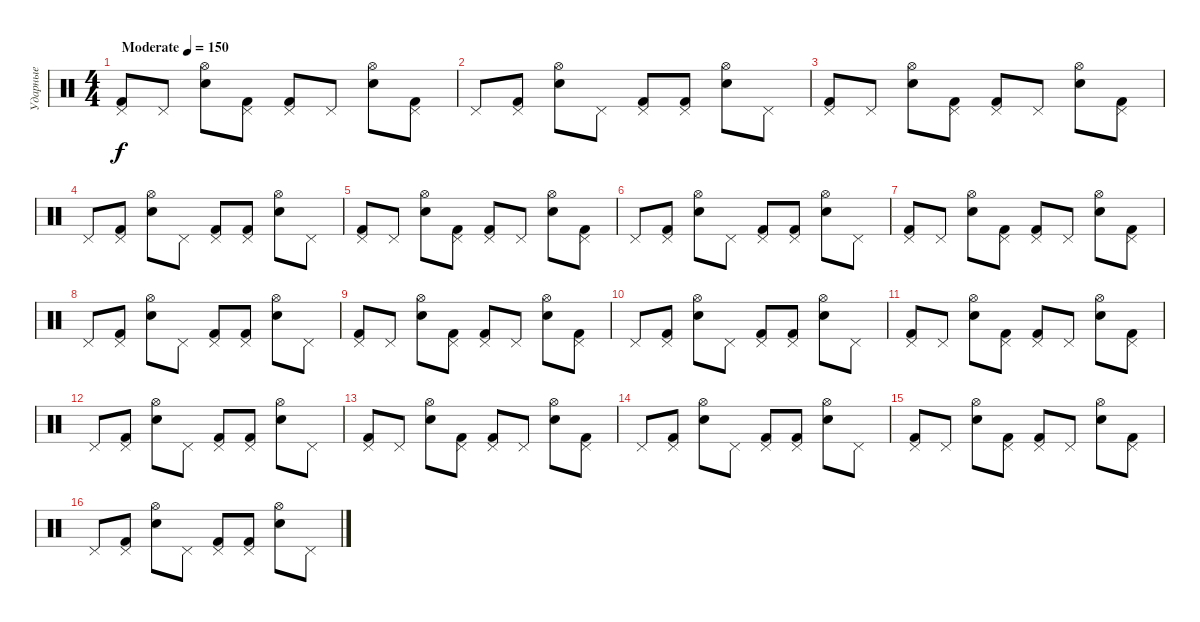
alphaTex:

\track ("Ударные" "Ударные") {instrument percussion}
\staff {score}
\articulation defaults
\ts (4 4)
\tempo (150 "Moderate")
\clef neutral
\ks c
("Pedal Hi-Hat (hit)" "Kick (hit) 2").8{dy f} "Pedal Hi-Hat (hit)".8 ("Hi-Hat (open)" "Electric Snare (hit)").8 ("Pedal Hi-Hat (hit)" "Kick (hit) 2").8 ("Pedal Hi-Hat (hit)" "Kick (hit) 2").8 "Pedal Hi-Hat (hit)".8 ("Hi-Hat (open)" "Electric Snare (hit)").8 ("Pedal Hi-Hat (hit)" "Kick (hit) 2").8 |
"Pedal Hi-Hat (hit)".8 ("Pedal Hi-Hat (hit)" "Kick (hit) 2").8 ("Hi-Hat (open)" "Electric Snare (hit)").8 "Pedal Hi-Hat (hit)".8 ("Pedal Hi-Hat (hit)" "Kick (hit) 2").8 ("Pedal Hi-Hat (hit)" "Kick (hit) 2").8 ("Hi-Hat (open)" "Electric Snare (hit)").8 "Pedal Hi-Hat (hit)".8 |
("Pedal Hi-Hat (hit)" "Kick (hit) 2").8 "Pedal Hi-Hat (hit)".8 ("Hi-Hat (open)" "Electric Snare (hit)").8 ("Pedal Hi-Hat (hit)" "Kick (hit) 2").8 ("Pedal Hi-Hat (hit)" "Kick (hit) 2").8 "Pedal Hi-Hat (hit)".8 ("Hi-Hat (open)" "Electric Snare (hit)").8 ("Pedal Hi-Hat (hit)" "Kick (hit) 2").8 |
"Pedal Hi-Hat (hit)".8 ("Pedal Hi-Hat (hit)" "Kick (hit) 2").8 ("Hi-Hat (open)" "Electric Snare (hit)").8 "Pedal Hi-Hat (hit)".8 ("Pedal Hi-Hat (hit)" "Kick (hit) 2").8 ("Pedal Hi-Hat (hit)" "Kick (hit) 2").8 ("Hi-Hat (open)" "Electric Snare (hit)").8 "Pedal Hi-Hat (hit)".8 |
("Pedal Hi-Hat (hit)" "Kick (hit) 2").8 "Pedal Hi-Hat (hit)".8 ("Hi-Hat (open)" "Electric Snare (hit)").8 ("Pedal Hi-Hat (hit)" "Kick (hit) 2").8 ("Pedal Hi-Hat (hit)" "Kick (hit) 2").8 "Pedal Hi-Hat (hit)".8 ("Hi-Hat (open)" "Electric Snare (hit)").8 ("Pedal Hi-Hat (hit)" "Kick (hit) 2").8 |
"Pedal Hi-Hat (hit)".8 ("Pedal Hi-Hat (hit)" "Kick (hit) 2").8 ("Hi-Hat (open)" "Electric Snare (hit)").8 "Pedal Hi-Hat (hit)".8 ("Pedal Hi-Hat (hit)" "Kick (hit) 2").8 ("Pedal Hi-Hat (hit)" "Kick (hit) 2").8 ("Hi-Hat (open)" "Electric Snare (hit)").8 "Pedal Hi-Hat (hit)".8 |
("Pedal Hi-Hat (hit)" "Kick (hit) 2").8 "Pedal Hi-Hat (hit)".8 ("Hi-Hat (open)" "Electric Snare (hit)").8 ("Pedal Hi-Hat (hit)" "Kick (hit) 2").8 ("Pedal Hi-Hat (hit)" "Kick (hit) 2").8 "Pedal Hi-Hat (hit)".8 ("Hi-Hat (open)" "Electric Snare (hit)").8 ("Pedal Hi-Hat (hit)" "Kick (hit) 2").8 |
"Pedal Hi-Hat (hit)".8 ("Pedal Hi-Hat (hit)" "Kick (hit) 2").8 ("Hi-Hat (open)" "Electric Snare (hit)").8 "Pedal Hi-Hat (hit)".8 ("Pedal Hi-Hat (hit)" "Kick (hit) 2").8 ("Pedal Hi-Hat (hit)" "Kick (hit) 2").8 ("Hi-Hat (open)" "Electric Snare (hit)").8 "Pedal Hi-Hat (hit)".8 |
("Pedal Hi-Hat (hit)" "Kick (hit) 2").8 "Pedal Hi-Hat (hit)".8 ("Hi-Hat (open)" "Electric Snare (hit)").8 ("Pedal Hi-Hat (hit)" "Kick (hit) 2").8 ("Pedal Hi-Hat (hit)" "Kick (hit) 2").8 "Pedal Hi-Hat (hit)".8 ("Hi-Hat (open)" "Electric Snare (hit)").8 ("Pedal Hi-Hat (hit)" "Kick (hit) 2").8 |
"Pedal Hi-Hat (hit)".8 ("Pedal Hi-Hat (hit)" "Kick (hit) 2").8 ("Hi-Hat (open)" "Electric Snare (hit)").8 "Pedal Hi-Hat (hit)".8 ("Pedal Hi-Hat (hit)" "Kick (hit) 2").8 ("Pedal Hi-Hat (hit)" "Kick (hit) 2").8 ("Hi-Hat (open)" "Electric Snare (hit)").8 "Pedal Hi-Hat (hit)".8 |
("Pedal Hi-Hat (hit)" "Kick (hit) 2").8 "Pedal Hi-Hat (hit)".8 ("Hi-Hat (open)" "Electric Snare (hit)").8 ("Pedal Hi-Hat (hit)" "Kick (hit) 2").8 ("Pedal Hi-Hat (hit)" "Kick (hit) 2").8 "Pedal Hi-Hat (hit)".8 ("Hi-Hat (open)" "Electric Snare (hit)").8 ("Pedal Hi-Hat (hit)" "Kick (hit) 2").8 |
"Pedal Hi-Hat (hit)".8 ("Pedal Hi-Hat (hit)" "Kick (hit) 2").8 ("Hi-Hat (open)" "Electric Snare (hit)").8 "Pedal Hi-Hat (hit)".8 ("Pedal Hi-Hat (hit)" "Kick (hit) 2").8 ("Pedal Hi-Hat (hit)" "Kick (hit) 2").8 ("Hi-Hat (open)" "Electric Snare (hit)").8 "Pedal Hi-Hat (hit)".8 |
("Pedal Hi-Hat (hit)" "Kick (hit) 2").8 "Pedal Hi-Hat (hit)".8 ("Hi-Hat (open)" "Electric Snare (hit)").8 ("Pedal Hi-Hat (hit)" "Kick (hit) 2").8 ("Pedal Hi-Hat (hit)" "Kick (hit) 2").8 "Pedal Hi-Hat (hit)".8 ("Hi-Hat (open)" "Electric Snare (hit)").8 ("Pedal Hi-Hat (hit)" "Kick (hit) 2").8 |
"Pedal Hi-Hat (hit)".8 ("Pedal Hi-Hat (hit)" "Kick (hit) 2").8 ("Hi-Hat (open)" "Electric Snare (hit)").8 "Pedal Hi-Hat (hit)".8 ("Pedal Hi-Hat (hit)" "Kick (hit) 2").8 ("Pedal Hi-Hat (hit)" "Kick (hit) 2").8 ("Hi-Hat (open)" "Electric Snare (hit)").8 "Pedal Hi-Hat (hit)".8 |
("Pedal Hi-Hat (hit)" "Kick (hit) 2").8 "Pedal Hi-Hat (hit)".8 ("Hi-Hat (open)" "Electric Snare (hit)").8 ("Pedal Hi-Hat (hit)" "Kick (hit) 2").8 ("Pedal Hi-Hat (hit)" "Kick (hit) 2").8 "Pedal Hi-Hat (hit)".8 ("Hi-Hat (open)" "Electric Snare (hit)").8 ("Pedal Hi-Hat (hit)" "Kick (hit) 2").8 |
"Pedal Hi-Hat (hit)".8 ("Pedal Hi-Hat (hit)" "Kick (hit) 2").8 ("Hi-Hat (open)" "Electric Snare (hit)").8 "Pedal Hi-Hat (hit)".8 ("Pedal Hi-Hat (hit)" "Kick (hit) 2").8 ("Pedal Hi-Hat (hit)" "Kick (hit) 2").8 ("Hi-Hat (open)" "Electric Snare (hit)").8 "Pedal Hi-Hat (hit)".8
